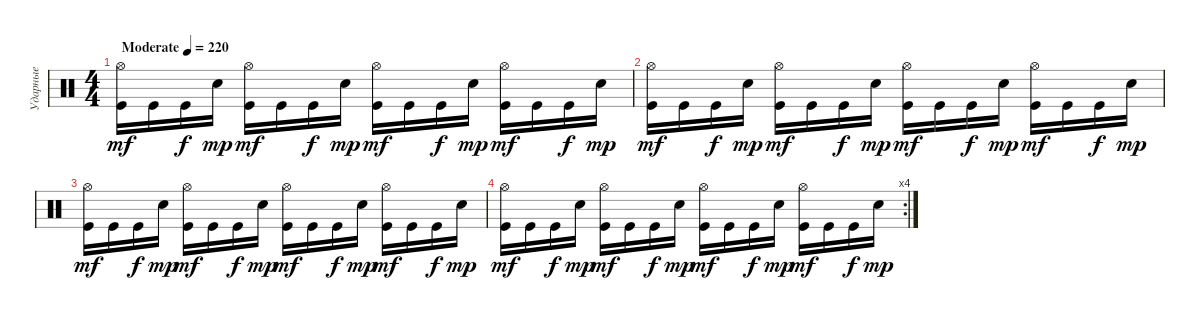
\track ("Ударные" "Ударные") {instrument percussion}
\staff {score}
\articulation defaults
\ts (4 4)
\tempo (220 "Moderate")
\clef neutral
\ks c
("Hi-Hat (open)" "Kick (hit)").16{dy mf} "Kick (hit)".16 "Kick (hit)".16{dy f} "Electric Snare (hit)".16{dy mp} ("Hi-Hat (open)" "Kick (hit)").16{dy mf} "Kick (hit)".16 "Kick (hit)".16{dy f} "Electric Snare (hit)".16{dy mp} ("Hi-Hat (open)" "Kick (hit)").16{dy mf} "Kick (hit)".16 "Kick (hit)".16{dy f} "Electric Snare (hit)".16{dy mp} ("Hi-Hat (open)" "Kick (hit)").16{dy mf} "Kick (hit)".16 "Kick (hit)".16{dy f} "Electric Snare (hit)".16{dy mp} |
("Hi-Hat (open)" "Kick (hit)").16{dy mf} "Kick (hit)".16 "Kick (hit)".16{dy f} "Electric Snare (hit)".16{dy mp} ("Hi-Hat (open)" "Kick (hit)").16{dy mf} "Kick (hit)".16 "Kick (hit)".16{dy f} "Electric Snare (hit)".16{dy mp} ("Hi-Hat (open)" "Kick (hit)").16{dy mf} "Kick (hit)".16 "Kick (hit)".16{dy f} "Electric Snare (hit)".16{dy mp} ("Hi-Hat (open)" "Kick (hit)").16{dy mf} "Kick (hit)".16 "Kick (hit)".16{dy f} "Electric Snare (hit)".16{dy mp} |
("Hi-Hat (open)" "Kick (hit)").16{dy mf} "Kick (hit)".16 "Kick (hit)".16{dy f} "Electric Snare (hit)".16{dy mp} ("Hi-Hat (open)" "Kick (hit)").16{dy mf} "Kick (hit)".16 "Kick (hit)".16{dy f} "Electric Snare (hit)".16{dy mp} ("Hi-Hat (open)" "Kick (hit)").16{dy mf} "Kick (hit)".16 "Kick (hit)".16{dy f} "Electric Snare (hit)".16{dy mp} ("Hi-Hat (open)" "Kick (hit)").16{dy mf} "Kick (hit)".16 "Kick (hit)".16{dy f} "Electric Snare (hit)".16{dy mp} |
\rc 4
("Hi-Hat (open)" "Kick (hit)").16{dy mf} "Kick (hit)".16 "Kick (hit)".16{dy f} "Electric Snare (hit)".16{dy mp} ("Hi-Hat (open)" "Kick (hit)").16{dy mf} "Kick (hit)".16 "Kick (hit)".16{dy f} "Electric Snare (hit)".16{dy mp} ("Hi-Hat (open)" "Kick (hit)").16{dy mf} "Kick (hit)".16 "Kick (hit)".16{dy f} "Electric Snare (hit)".16{dy mp} ("Hi-Hat (open)" "Kick (hit)").16{dy mf} "Kick (hit)".16 "Kick (hit)".16{dy f} "Electric Snare (hit)".16{dy mp}
